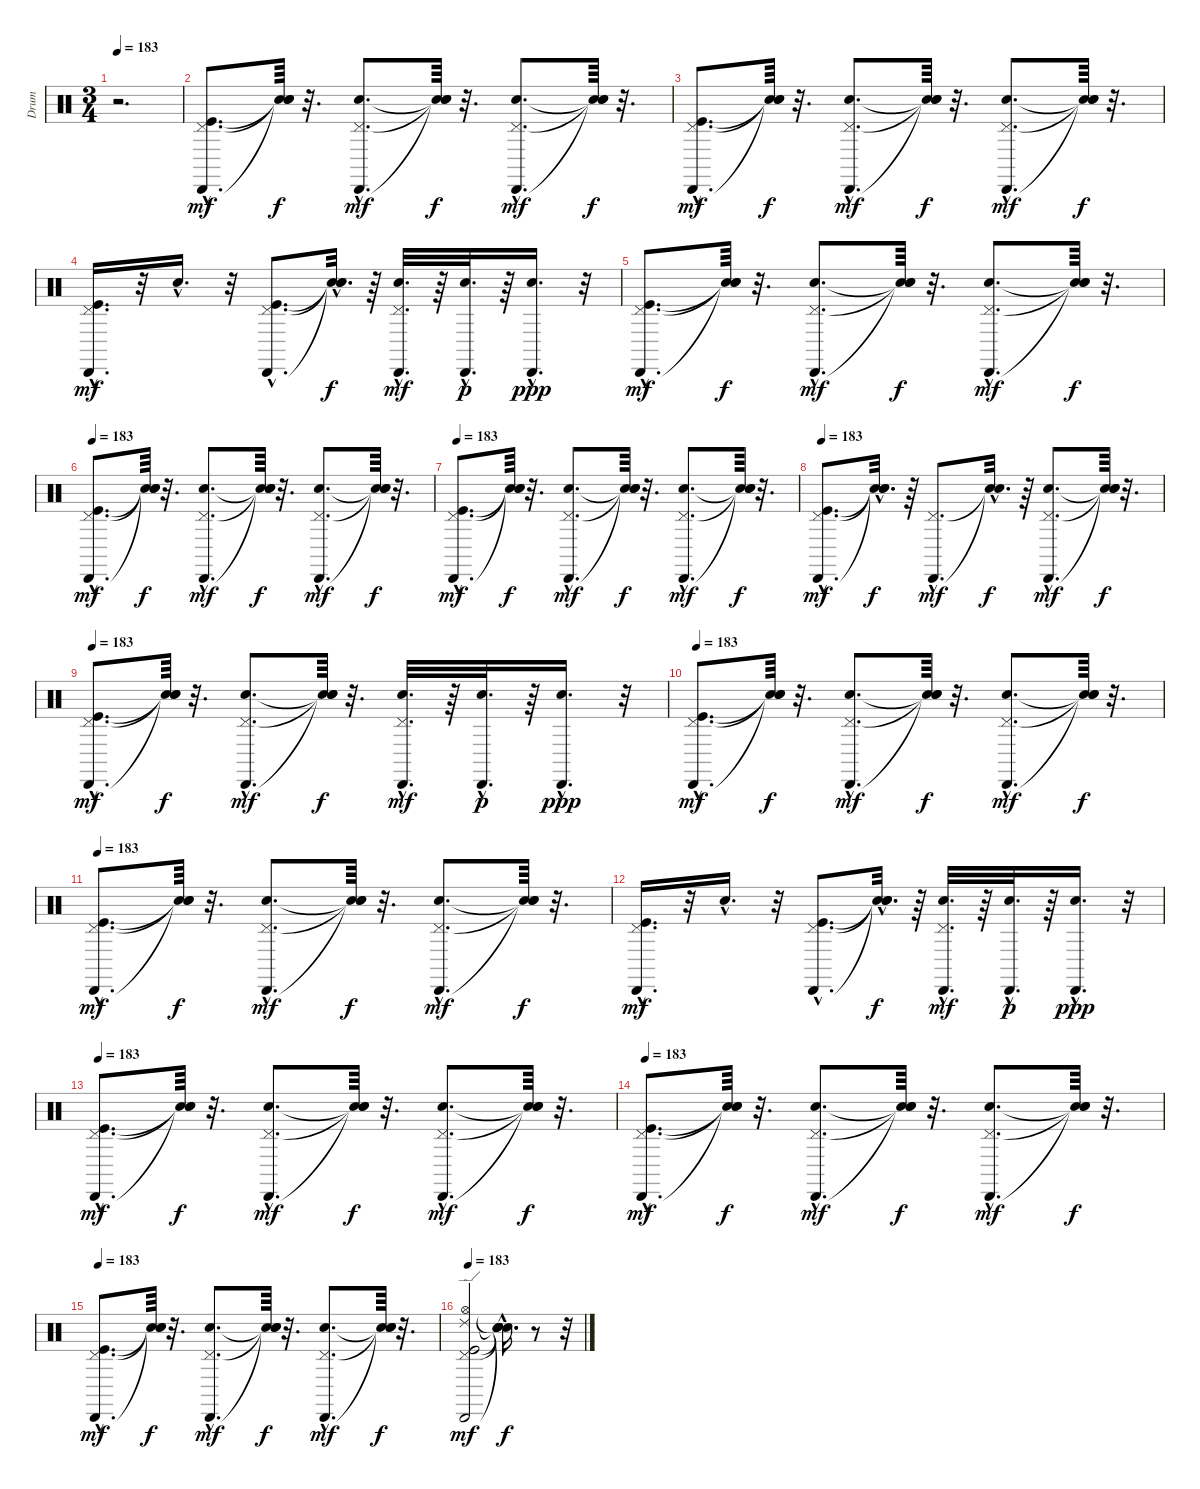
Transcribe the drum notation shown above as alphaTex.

\track ("Drum" "Drum") {instrument percussion}
\staff {score}
\articulation defaults
\ts (3 4)
\tempo 183
\clef neutral
\ks c
r.2{d dy mf} |
("Kick (hit)"{hac} "Cabasa (hit)"{hac} "Pedal Hi-Hat (hit)"{hac}).8{d} ("Snare (hit)"{t} "Snare (hit)"{t} "Snare (hit)"{t}).64{dy f} r.32{d} ("Electric Snare (hit)"{hac} "Cabasa (hit)"{hac} "Pedal Hi-Hat (hit)"{hac}).8{d dy mf} ("Snare (hit)"{t} "Snare (hit)"{t} "Snare (hit)"{t}).64{dy f} r.32{d} ("Electric Snare (hit)"{hac} "Cabasa (hit)"{hac} "Pedal Hi-Hat (hit)"{hac}).8{d dy mf} ("Snare (hit)"{t} "Snare (hit)"{t} "Snare (hit)"{t}).64{dy f} r.32{d} |
("Cabasa (hit)"{hac} "Pedal Hi-Hat (hit)"{hac} "Kick (hit)"{hac}).8{d dy mf} ("Snare (hit)"{t} "Snare (hit)"{t} "Snare (hit)"{t}).64{dy f} r.32{d} ("Cabasa (hit)"{hac} "Pedal Hi-Hat (hit)"{hac} "Electric Snare (hit)"{hac}).8{d dy mf} ("Snare (hit)"{t} "Snare (hit)"{t} "Snare (hit)"{t}).64{dy f} r.32{d} ("Cabasa (hit)"{hac} "Pedal Hi-Hat (hit)"{hac} "Electric Snare (hit)"{hac}).8{d dy mf} ("Snare (hit)"{t} "Snare (hit)"{t} "Snare (hit)"{t}).64{dy f} r.32{d} |
("Cabasa (hit)"{hac} "Pedal Hi-Hat (hit)"{hac} "Kick (hit)"{hac}).16{d dy mf} r.32 "Electric Snare (hit)"{hac}.16{d} r.32 ("Kick (hit)"{hac} "Cabasa (hit)"{hac} "Pedal Hi-Hat (hit)"{hac}).8{d} ("Snare (hit)"{hac t} "Snare (hit)"{hac t} "Snare (hit)"{hac t}).32{d dy f} r.64 ("Pedal Hi-Hat (hit)"{hac} "Cabasa (hit)"{hac} "Electric Snare (hit)"{hac}).32{d dy mf} r.64 ("Cabasa (hit)"{hac} "Electric Snare (hit)"{hac}).32{d dy p} r.64 ("Cabasa (hit)"{hac} "Electric Snare (hit)"{hac}).16{d dy ppp} r.32 |
("Cabasa (hit)"{hac} "Pedal Hi-Hat (hit)"{hac} "Kick (hit)"{hac}).8{d dy mf} ("Snare (hit)"{t} "Snare (hit)"{t} "Snare (hit)"{t}).64{dy f} r.32{d} ("Cabasa (hit)"{hac} "Pedal Hi-Hat (hit)"{hac} "Electric Snare (hit)"{hac}).8{d dy mf} ("Snare (hit)"{t} "Snare (hit)"{t} "Snare (hit)"{t}).64{dy f} r.32{d} ("Cabasa (hit)"{hac} "Pedal Hi-Hat (hit)"{hac} "Electric Snare (hit)"{hac}).8{d dy mf} ("Snare (hit)"{t} "Snare (hit)"{t} "Snare (hit)"{t}).64{dy f} r.32{d} |
\tempo 183
("Kick (hit)"{hac} "Pedal Hi-Hat (hit)"{hac} "Cabasa (hit)"{hac}).8{d dy mf} ("Snare (hit)"{t} "Snare (hit)"{t} "Snare (hit)"{t}).64{dy f} r.32{d} ("Electric Snare (hit)"{hac} "Pedal Hi-Hat (hit)"{hac} "Cabasa (hit)"{hac}).8{d dy mf} ("Snare (hit)"{t} "Snare (hit)"{t} "Snare (hit)"{t}).64{dy f} r.32{d} ("Electric Snare (hit)"{hac} "Pedal Hi-Hat (hit)"{hac} "Cabasa (hit)"{hac}).8{d dy mf} ("Snare (hit)"{t} "Snare (hit)"{t} "Snare (hit)"{t}).64{dy f} r.32{d} |
\tempo 183
("Kick (hit)"{hac} "Pedal Hi-Hat (hit)"{hac} "Cabasa (hit)"{hac}).8{d dy mf} ("Snare (hit)"{t} "Snare (hit)"{t} "Snare (hit)"{t}).64{dy f} r.32{d} ("Electric Snare (hit)"{hac} "Pedal Hi-Hat (hit)"{hac} "Cabasa (hit)"{hac}).8{d dy mf} ("Snare (hit)"{t} "Snare (hit)"{t} "Snare (hit)"{t}).64{dy f} r.32{d} ("Electric Snare (hit)"{hac} "Pedal Hi-Hat (hit)"{hac} "Cabasa (hit)"{hac}).8{d dy mf} ("Snare (hit)"{t} "Snare (hit)"{t} "Snare (hit)"{t}).64{dy f} r.32{d} |
\tempo 183
("Pedal Hi-Hat (hit)"{hac} "Kick (hit)"{hac} "Cabasa (hit)"{hac}).8{d dy mf} ("Snare (hit)"{hac t} "Snare (hit)"{hac t} "Snare (hit)"{hac t}).32{d dy f} r.64 ("Cabasa (hit)"{hac} "Pedal Hi-Hat (hit)"{hac}).8{d dy mf} ("Snare (hit)"{hac t} "Snare (hit)"{hac t}).32{d dy f} r.64 ("Cabasa (hit)"{hac} "Electric Snare (hit)"{hac} "Pedal Hi-Hat (hit)"{hac}).8{d dy mf} ("Snare (hit)"{t} "Snare (hit)"{t} "Snare (hit)"{t}).64{dy f} r.32{d} |
\tempo 183
("Kick (hit)"{hac} "Pedal Hi-Hat (hit)"{hac} "Cabasa (hit)"{hac}).8{d dy mf} ("Snare (hit)"{t} "Snare (hit)"{t} "Snare (hit)"{t}).64{dy f} r.32{d} ("Electric Snare (hit)"{hac} "Pedal Hi-Hat (hit)"{hac} "Cabasa (hit)"{hac}).8{d dy mf} ("Snare (hit)"{t} "Snare (hit)"{t} "Snare (hit)"{t}).64{dy f} r.32{d} ("Electric Snare (hit)"{hac} "Cabasa (hit)"{hac} "Pedal Hi-Hat (hit)"{hac}).32{d dy mf} r.64 ("Electric Snare (hit)"{hac} "Cabasa (hit)"{hac}).32{d dy p} r.64 ("Electric Snare (hit)"{hac} "Cabasa (hit)"{hac}).16{d dy ppp} r.32 |
\tempo 183
("Pedal Hi-Hat (hit)"{hac} "Cabasa (hit)"{hac} "Kick (hit)"{hac}).8{d dy mf} ("Snare (hit)"{t} "Snare (hit)"{t} "Snare (hit)"{t}).64{dy f} r.32{d} ("Pedal Hi-Hat (hit)"{hac} "Cabasa (hit)"{hac} "Electric Snare (hit)"{hac}).8{d dy mf} ("Snare (hit)"{t} "Snare (hit)"{t} "Snare (hit)"{t}).64{dy f} r.32{d} ("Pedal Hi-Hat (hit)"{hac} "Cabasa (hit)"{hac} "Electric Snare (hit)"{hac}).8{d dy mf} ("Snare (hit)"{t} "Snare (hit)"{t} "Snare (hit)"{t}).64{dy f} r.32{d} |
\tempo 183
("Kick (hit)"{hac} "Pedal Hi-Hat (hit)"{hac} "Cabasa (hit)"{hac}).8{d dy mf} ("Snare (hit)"{t} "Snare (hit)"{t} "Snare (hit)"{t}).64{dy f} r.32{d} ("Electric Snare (hit)"{hac} "Pedal Hi-Hat (hit)"{hac} "Cabasa (hit)"{hac}).8{d dy mf} ("Snare (hit)"{t} "Snare (hit)"{t} "Snare (hit)"{t}).64{dy f} r.32{d} ("Electric Snare (hit)"{hac} "Pedal Hi-Hat (hit)"{hac} "Cabasa (hit)"{hac}).8{d dy mf} ("Snare (hit)"{t} "Snare (hit)"{t} "Snare (hit)"{t}).64{dy f} r.32{d} |
("Kick (hit)"{hac} "Pedal Hi-Hat (hit)"{hac} "Cabasa (hit)"{hac}).16{d dy mf} r.32 "Electric Snare (hit)"{hac}.16{d} r.32 ("Pedal Hi-Hat (hit)"{hac} "Cabasa (hit)"{hac} "Kick (hit)"{hac}).8{d} ("Snare (hit)"{hac t} "Snare (hit)"{hac t} "Snare (hit)"{hac t}).32{d dy f} r.64 ("Electric Snare (hit)"{hac} "Cabasa (hit)"{hac} "Pedal Hi-Hat (hit)"{hac}).32{d dy mf} r.64 ("Electric Snare (hit)"{hac} "Cabasa (hit)"{hac}).32{d dy p} r.64 ("Electric Snare (hit)"{hac} "Cabasa (hit)"{hac}).16{d dy ppp} r.32 |
\tempo 183
("Kick (hit)"{hac} "Pedal Hi-Hat (hit)"{hac} "Cabasa (hit)"{hac}).8{d dy mf} ("Snare (hit)"{t} "Snare (hit)"{t} "Snare (hit)"{t}).64{dy f} r.32{d} ("Electric Snare (hit)"{hac} "Pedal Hi-Hat (hit)"{hac} "Cabasa (hit)"{hac}).8{d dy mf} ("Snare (hit)"{t} "Snare (hit)"{t} "Snare (hit)"{t}).64{dy f} r.32{d} ("Electric Snare (hit)"{hac} "Pedal Hi-Hat (hit)"{hac} "Cabasa (hit)"{hac}).8{d dy mf} ("Snare (hit)"{t} "Snare (hit)"{t} "Snare (hit)"{t}).64{dy f} r.32{d} |
\tempo 183
("Pedal Hi-Hat (hit)"{hac} "Cabasa (hit)"{hac} "Kick (hit)"{hac}).8{d dy mf} ("Snare (hit)"{t} "Snare (hit)"{t} "Snare (hit)"{t}).64{dy f} r.32{d} ("Pedal Hi-Hat (hit)"{hac} "Cabasa (hit)"{hac} "Electric Snare (hit)"{hac}).8{d dy mf} ("Snare (hit)"{t} "Snare (hit)"{t} "Snare (hit)"{t}).64{dy f} r.32{d} ("Pedal Hi-Hat (hit)"{hac} "Cabasa (hit)"{hac} "Electric Snare (hit)"{hac}).8{d dy mf} ("Snare (hit)"{t} "Snare (hit)"{t} "Snare (hit)"{t}).64{dy f} r.32{d} |
\tempo 183
("Kick (hit)"{hac} "Cabasa (hit)"{hac} "Pedal Hi-Hat (hit)"{hac}).8{d dy mf} ("Snare (hit)"{t} "Snare (hit)"{t} "Snare (hit)"{t}).64{dy f} r.32{d} ("Snare (hit) 2"{hac} "Cabasa (hit)"{hac} "Pedal Hi-Hat (hit)"{hac}).8{d dy mf} ("Snare (hit)"{t} "Snare (hit)"{t} "Snare (hit)"{t}).64{dy f} r.32{d} ("Electric Snare (hit)"{hac} "Cabasa (hit)"{hac} "Pedal Hi-Hat (hit)"{hac}).8{d dy mf} ("Snare (hit)"{t} "Snare (hit)"{t} "Snare (hit)"{t}).64{dy f} r.32{d} |
\tempo 183
("Cabasa (hit)" "Hi-Hat (open)" "Ride (edge) 2" "Pedal Hi-Hat (hit)" "Kick (hit)").2{dy mf} ("Snare (hit)"{hac t} "Snare (hit)"{hac t} "Snare (hit)"{hac t} "Snare (hit)"{hac t} "Snare (hit)"{hac t}).16{d dy f} r.8 r.32
